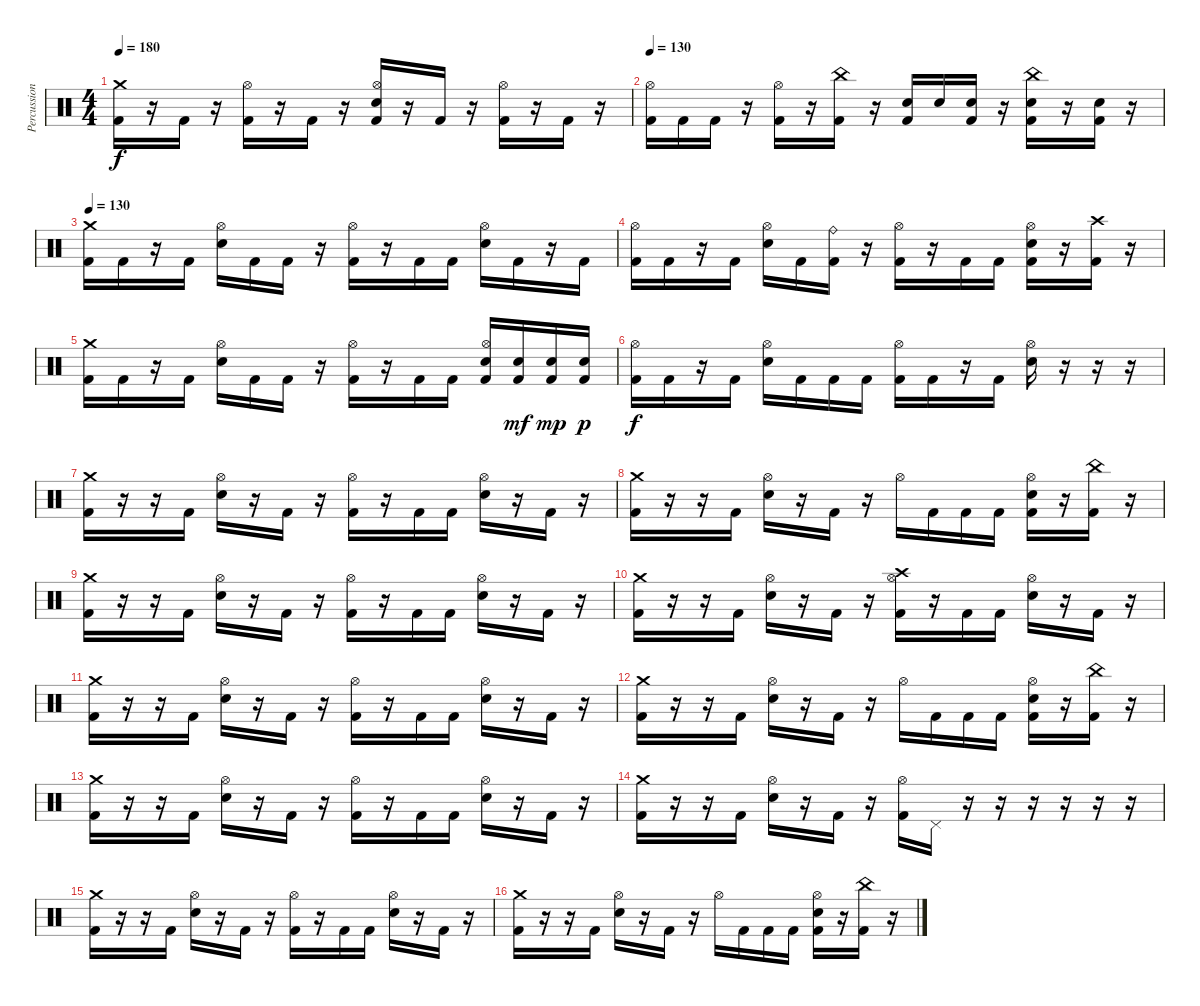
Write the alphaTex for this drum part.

\track ("Percussion" "Percussion") {instrument percussion}
\staff {score}
\articulation defaults
\ts (4 4)
\tempo 180
\clef neutral
\ks c
("Crash medium (hit)" "Kick (hit) 2").16{dy f} r.16 "Kick (hit) 2".16 r.16 ("Hi-Hat (open)" "Kick (hit) 2").16 r.16 "Kick (hit) 2".16 r.16 ("Hi-Hat (open)" "Electric Snare (hit)" "Kick (hit) 2").16 r.16 "Kick (hit) 2".16 r.16 ("Hi-Hat (open)" "Kick (hit) 2").16 r.16 "Kick (hit) 2".16 r.16 |
\tempo 130
("Hi-Hat (open)" "Kick (hit) 2").16 "Kick (hit) 2".16 "Kick (hit) 2".16 r.16 ("Hi-Hat (open)" "Kick (hit) 2").16 r.16 ("China (hit)" "Kick (hit) 2").16 r.16 ("Electric Snare (hit)" "Kick (hit) 2").16 "Electric Snare (hit)".16 ("Electric Snare (hit)" "Kick (hit) 2").16 r.16 ("China (hit)" "Electric Snare (hit)" "Kick (hit) 2").16 r.16 ("Electric Snare (hit)" "Kick (hit) 2").16 r.16 |
\tempo 130
("Crash medium (hit)" "Kick (hit) 2").16 "Kick (hit) 2".16 r.16 "Kick (hit) 2".16 ("Hi-Hat (open)" "Electric Snare (hit)").16 "Kick (hit) 2".16 "Kick (hit) 2".16 r.16 ("Hi-Hat (open)" "Kick (hit) 2").16 r.16 "Kick (hit) 2".16 "Kick (hit) 2".16 ("Hi-Hat (open)" "Electric Snare (hit)").16 "Kick (hit) 2".16 r.16 "Kick (hit) 2".16 |
("Hi-Hat (open)" "Kick (hit) 2").16 "Kick (hit) 2".16 r.16 "Kick (hit) 2".16 ("Hi-Hat (open)" "Electric Snare (hit)").16 "Kick (hit) 2".16 ("Ride (bell)" "Kick (hit) 2").16 r.16 ("Hi-Hat (open)" "Kick (hit) 2").16 r.16 "Kick (hit) 2".16 "Kick (hit) 2".16 ("Hi-Hat (open)" "Electric Snare (hit)" "Kick (hit) 2").16 r.16 ("Crash high (hit)" "Kick (hit) 2").16 r.16 |
("Crash medium (hit)" "Kick (hit) 2").16 "Kick (hit) 2".16 r.16 "Kick (hit) 2".16 ("Hi-Hat (open)" "Electric Snare (hit)").16 "Kick (hit) 2".16 "Kick (hit) 2".16 r.16 ("Hi-Hat (open)" "Kick (hit) 2").16 r.16 "Kick (hit) 2".16 "Kick (hit) 2".16 ("Hi-Hat (open)" "Electric Snare (hit)" "Kick (hit) 2").16 ("Electric Snare (hit)" "Kick (hit) 2").16{dy mf} ("Electric Snare (hit)" "Kick (hit) 2").16{dy mp} ("Electric Snare (hit)" "Kick (hit) 2").16{dy p} |
("Hi-Hat (open)" "Kick (hit) 2").16{dy f} "Kick (hit) 2".16 r.16 "Kick (hit) 2".16 ("Hi-Hat (open)" "Electric Snare (hit)").16 "Kick (hit) 2".16 "Kick (hit) 2".16 "Kick (hit) 2".16 ("Hi-Hat (open)" "Kick (hit) 2").16 "Kick (hit) 2".16 r.16 "Kick (hit) 2".16 ("Hi-Hat (open)" "Electric Snare (hit)").16 r.16 r.16 r.16 |
("Crash medium (hit)" "Kick (hit) 2").16 r.16 r.16 "Kick (hit) 2".16 ("Hi-Hat (open)" "Electric Snare (hit)").16 r.16 "Kick (hit) 2".16 r.16 ("Hi-Hat (open)" "Kick (hit) 2").16 r.16 "Kick (hit) 2".16 "Kick (hit) 2".16 ("Hi-Hat (open)" "Electric Snare (hit)").16 r.16 "Kick (hit) 2".16 r.16 |
("Crash medium (hit)" "Kick (hit) 2").16 r.16 r.16 "Kick (hit) 2".16 ("Hi-Hat (open)" "Electric Snare (hit)").16 r.16 "Kick (hit) 2".16 r.16 "Hi-Hat (open)".16 "Kick (hit) 2".16 "Kick (hit) 2".16 "Kick (hit) 2".16 ("Hi-Hat (open)" "Electric Snare (hit)" "Kick (hit) 2").16 r.16 ("China (hit)" "Kick (hit) 2").16 r.16 |
("Crash medium (hit)" "Kick (hit) 2").16 r.16 r.16 "Kick (hit) 2".16 ("Hi-Hat (open)" "Electric Snare (hit)").16 r.16 "Kick (hit) 2".16 r.16 ("Hi-Hat (open)" "Kick (hit) 2").16 r.16 "Kick (hit) 2".16 "Kick (hit) 2".16 ("Hi-Hat (open)" "Electric Snare (hit)").16 r.16 "Kick (hit) 2".16 r.16 |
("Crash medium (hit)" "Kick (hit) 2").16 r.16 r.16 "Kick (hit) 2".16 ("Hi-Hat (open)" "Electric Snare (hit)").16 r.16 "Kick (hit) 2".16 r.16 ("Crash high (hit)" "Hi-Hat (open)" "Kick (hit) 2").16 r.16 "Kick (hit) 2".16 "Kick (hit) 2".16 ("Hi-Hat (open)" "Electric Snare (hit)").16 r.16 "Kick (hit) 2".16 r.16 |
("Crash medium (hit)" "Kick (hit) 2").16 r.16 r.16 "Kick (hit) 2".16 ("Hi-Hat (open)" "Electric Snare (hit)").16 r.16 "Kick (hit) 2".16 r.16 ("Hi-Hat (open)" "Kick (hit) 2").16 r.16 "Kick (hit) 2".16 "Kick (hit) 2".16 ("Hi-Hat (open)" "Electric Snare (hit)").16 r.16 "Kick (hit) 2".16 r.16 |
("Crash medium (hit)" "Kick (hit) 2").16 r.16 r.16 "Kick (hit) 2".16 ("Hi-Hat (open)" "Electric Snare (hit)").16 r.16 "Kick (hit) 2".16 r.16 "Hi-Hat (open)".16 "Kick (hit) 2".16 "Kick (hit) 2".16 "Kick (hit) 2".16 ("Hi-Hat (open)" "Electric Snare (hit)" "Kick (hit) 2").16 r.16 ("China (hit)" "Kick (hit) 2").16 r.16 |
("Crash medium (hit)" "Kick (hit) 2").16 r.16 r.16 "Kick (hit) 2".16 ("Hi-Hat (open)" "Electric Snare (hit)").16 r.16 "Kick (hit) 2".16 r.16 ("Hi-Hat (open)" "Kick (hit) 2").16 r.16 "Kick (hit) 2".16 "Kick (hit) 2".16 ("Hi-Hat (open)" "Electric Snare (hit)").16 r.16 "Kick (hit) 2".16 r.16 |
("Crash medium (hit)" "Kick (hit) 2").16 r.16 r.16 "Kick (hit) 2".16 ("Hi-Hat (open)" "Electric Snare (hit)").16 r.16 "Kick (hit) 2".16 r.16 ("Hi-Hat (open)" "Kick (hit) 2").16 "Pedal Hi-Hat (hit)".16 r.16 r.16 r.16 r.16 r.16 r.16 |
("Crash medium (hit)" "Kick (hit) 2").16 r.16 r.16 "Kick (hit) 2".16 ("Hi-Hat (open)" "Electric Snare (hit)").16 r.16 "Kick (hit) 2".16 r.16 ("Hi-Hat (open)" "Kick (hit) 2").16 r.16 "Kick (hit) 2".16 "Kick (hit) 2".16 ("Hi-Hat (open)" "Electric Snare (hit)").16 r.16 "Kick (hit) 2".16 r.16 |
("Crash medium (hit)" "Kick (hit) 2").16 r.16 r.16 "Kick (hit) 2".16 ("Hi-Hat (open)" "Electric Snare (hit)").16 r.16 "Kick (hit) 2".16 r.16 "Hi-Hat (open)".16 "Kick (hit) 2".16 "Kick (hit) 2".16 "Kick (hit) 2".16 ("Hi-Hat (open)" "Electric Snare (hit)" "Kick (hit) 2").16 r.16 ("China (hit)" "Kick (hit) 2").16 r.16
